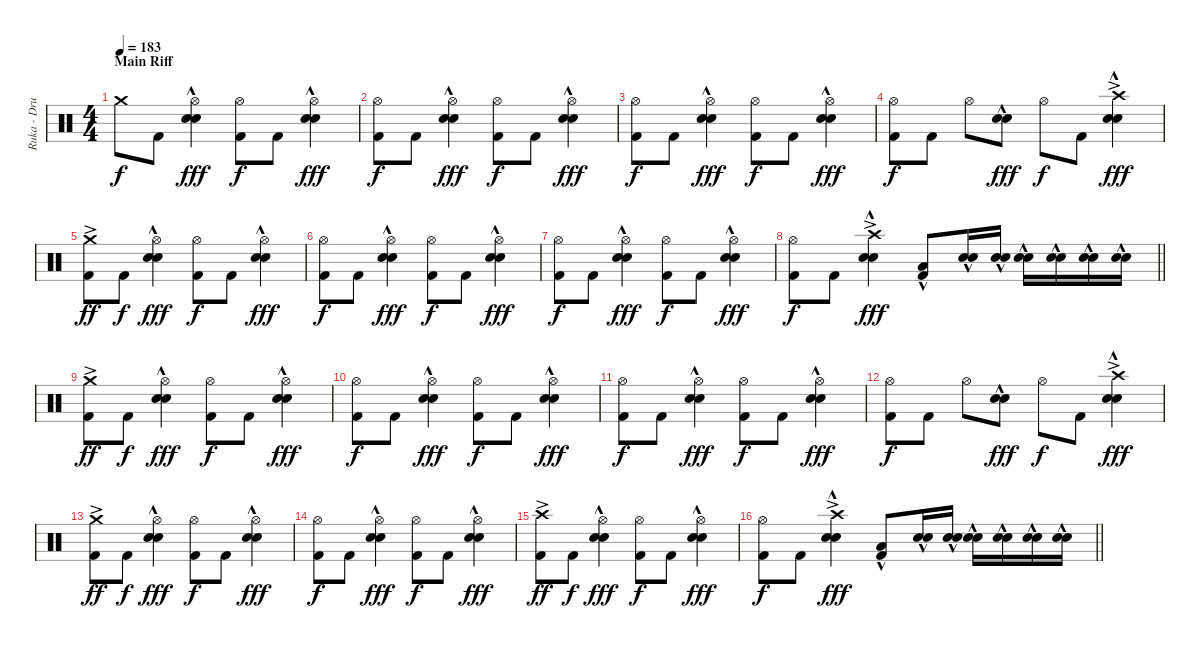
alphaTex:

\track ("Ruka - Drums" "Ruka - Dru") {instrument percussion}
\staff {score}
\articulation defaults
\ts (4 4)
\section ("" "Main Riff")
\tempo 183
\clef neutral
\ks c "Crash medium (hit)"{t}.8{dy f} "Kick (hit) 2".8
("Hi-Hat (open)" "Electric Snare (hit)"{hac} "Snare (hit) 2"{hac}).4{dy fff} ("Hi-Hat (open)" "Kick (hit) 2").8{dy f} "Kick (hit) 2".8 ("Hi-Hat (open)" "Electric Snare (hit)"{hac} "Snare (hit) 2"{hac}).4{dy fff} |
("Hi-Hat (open)" "Kick (hit) 2").8{dy f} "Kick (hit) 2".8 ("Hi-Hat (open)" "Electric Snare (hit)"{hac} "Snare (hit) 2"{hac}).4{dy fff} ("Hi-Hat (open)" "Kick (hit) 2").8{dy f} "Kick (hit) 2".8 ("Hi-Hat (open)" "Electric Snare (hit)"{hac} "Snare (hit) 2"{hac}).4{dy fff} |
("Hi-Hat (open)" "Kick (hit) 2").8{dy f} "Kick (hit) 2".8 ("Hi-Hat (open)" "Electric Snare (hit)"{hac} "Snare (hit) 2"{hac}).4{dy fff} ("Hi-Hat (open)" "Kick (hit) 2").8{dy f} "Kick (hit) 2".8 ("Hi-Hat (open)" "Electric Snare (hit)"{hac} "Snare (hit) 2"{hac}).4{dy fff} |
("Hi-Hat (open)" "Kick (hit) 2").8{dy f} "Kick (hit) 2".8 "Hi-Hat (open)".8 ("Electric Snare (hit)"{hac} "Snare (hit) 2"{hac}).8{dy fff} "Hi-Hat (open)".8{dy f} "Kick (hit) 2".8 ("Crash high (hit)"{ac} "Electric Snare (hit)"{hac} "Snare (hit) 2"{hac}).4{dy fff} |
("Crash medium (hit)"{ac} "Kick (hit) 2").8{dy ff} "Kick (hit) 2".8{dy f} ("Hi-Hat (open)" "Electric Snare (hit)"{hac} "Snare (hit) 2"{hac}).4{dy fff} ("Hi-Hat (open)" "Kick (hit) 2").8{dy f} "Kick (hit) 2".8 ("Hi-Hat (open)" "Electric Snare (hit)"{hac} "Snare (hit) 2"{hac}).4{dy fff} |
("Hi-Hat (open)" "Kick (hit) 2").8{dy f} "Kick (hit) 2".8 ("Hi-Hat (open)" "Electric Snare (hit)"{hac} "Snare (hit) 2"{hac}).4{dy fff} ("Hi-Hat (open)" "Kick (hit) 2").8{dy f} "Kick (hit) 2".8 ("Hi-Hat (open)" "Electric Snare (hit)"{hac} "Snare (hit) 2"{hac}).4{dy fff} |
("Hi-Hat (open)" "Kick (hit) 2").8{dy f} "Kick (hit) 2".8 ("Hi-Hat (open)" "Electric Snare (hit)"{hac} "Snare (hit) 2"{hac}).4{dy fff} ("Hi-Hat (open)" "Kick (hit) 2").8{dy f} "Kick (hit) 2".8 ("Hi-Hat (open)" "Electric Snare (hit)"{hac} "Snare (hit) 2"{hac}).4{dy fff} |
\barLineRight lightlight
("Hi-Hat (open)" "Kick (hit) 2").8{dy f} "Kick (hit) 2".8 ("Crash high (hit)"{ac} "Electric Snare (hit)"{hac} "Snare (hit) 2"{hac}).4{dy fff} ("Low Tom (hit)"{hac} "Kick (hit) 2").8 ("Electric Snare (hit)"{hac} "Snare (hit) 2"{hac}).16 ("Electric Snare (hit)"{hac} "Snare (hit) 2"{hac}).16 ("Electric Snare (hit)"{hac} "Snare (hit) 2"{hac}).16 ("Electric Snare (hit)"{hac} "Snare (hit) 2"{hac}).16 ("Electric Snare (hit)"{hac} "Snare (hit) 2"{hac}).16 ("Electric Snare (hit)"{hac} "Snare (hit) 2"{hac}).16 |
\section ("" "")
("Crash medium (hit)"{ac} "Kick (hit) 2").8{dy ff} "Kick (hit) 2".8{dy f} ("Hi-Hat (open)" "Electric Snare (hit)"{hac} "Snare (hit) 2"{hac}).4{dy fff} ("Hi-Hat (open)" "Kick (hit) 2").8{dy f} "Kick (hit) 2".8 ("Hi-Hat (open)" "Electric Snare (hit)"{hac} "Snare (hit) 2"{hac}).4{dy fff} |
("Hi-Hat (open)" "Kick (hit) 2").8{dy f} "Kick (hit) 2".8 ("Hi-Hat (open)" "Electric Snare (hit)"{hac} "Snare (hit) 2"{hac}).4{dy fff} ("Hi-Hat (open)" "Kick (hit) 2").8{dy f} "Kick (hit) 2".8 ("Hi-Hat (open)" "Electric Snare (hit)"{hac} "Snare (hit) 2"{hac}).4{dy fff} |
("Hi-Hat (open)" "Kick (hit) 2").8{dy f} "Kick (hit) 2".8 ("Hi-Hat (open)" "Electric Snare (hit)"{hac} "Snare (hit) 2"{hac}).4{dy fff} ("Hi-Hat (open)" "Kick (hit) 2").8{dy f} "Kick (hit) 2".8 ("Hi-Hat (open)" "Electric Snare (hit)"{hac} "Snare (hit) 2"{hac}).4{dy fff} |
("Hi-Hat (open)" "Kick (hit) 2").8{dy f} "Kick (hit) 2".8 "Hi-Hat (open)".8 ("Electric Snare (hit)"{hac} "Snare (hit) 2"{hac}).8{dy fff} "Hi-Hat (open)".8{dy f} "Kick (hit) 2".8 ("Crash high (hit)"{ac} "Electric Snare (hit)"{hac} "Snare (hit) 2"{hac}).4{dy fff} |
("Crash medium (hit)"{ac} "Kick (hit) 2").8{dy ff} "Kick (hit) 2".8{dy f} ("Hi-Hat (open)" "Electric Snare (hit)"{hac} "Snare (hit) 2"{hac}).4{dy fff} ("Hi-Hat (open)" "Kick (hit) 2").8{dy f} "Kick (hit) 2".8 ("Hi-Hat (open)" "Electric Snare (hit)"{hac} "Snare (hit) 2"{hac}).4{dy fff} |
("Hi-Hat (open)" "Kick (hit) 2").8{dy f} "Kick (hit) 2".8 ("Hi-Hat (open)" "Electric Snare (hit)"{hac} "Snare (hit) 2"{hac}).4{dy fff} ("Hi-Hat (open)" "Kick (hit) 2").8{dy f} "Kick (hit) 2".8 ("Hi-Hat (open)" "Electric Snare (hit)"{hac} "Snare (hit) 2"{hac}).4{dy fff} |
("Crash high (hit)"{ac} "Kick (hit) 2").8{dy ff} "Kick (hit) 2".8{dy f} ("Hi-Hat (open)" "Electric Snare (hit)"{hac} "Snare (hit) 2"{hac}).4{dy fff} ("Hi-Hat (open)" "Kick (hit) 2").8{dy f} "Kick (hit) 2".8 ("Hi-Hat (open)" "Electric Snare (hit)"{hac} "Snare (hit) 2"{hac}).4{dy fff} |
\barLineRight lightlight
("Hi-Hat (open)" "Kick (hit) 2").8{dy f} "Kick (hit) 2".8 ("Crash high (hit)"{ac} "Electric Snare (hit)"{hac} "Snare (hit) 2"{hac}).4{dy fff} ("Low Tom (hit)"{hac} "Kick (hit) 2").8 ("Electric Snare (hit)"{hac} "Snare (hit) 2"{hac}).16 ("Electric Snare (hit)"{hac} "Snare (hit) 2"{hac}).16 ("Electric Snare (hit)"{hac} "Snare (hit) 2"{hac}).16 ("Electric Snare (hit)"{hac} "Snare (hit) 2"{hac}).16 ("Electric Snare (hit)"{hac} "Snare (hit) 2"{hac}).16 ("Electric Snare (hit)"{hac} "Snare (hit) 2"{hac}).16
